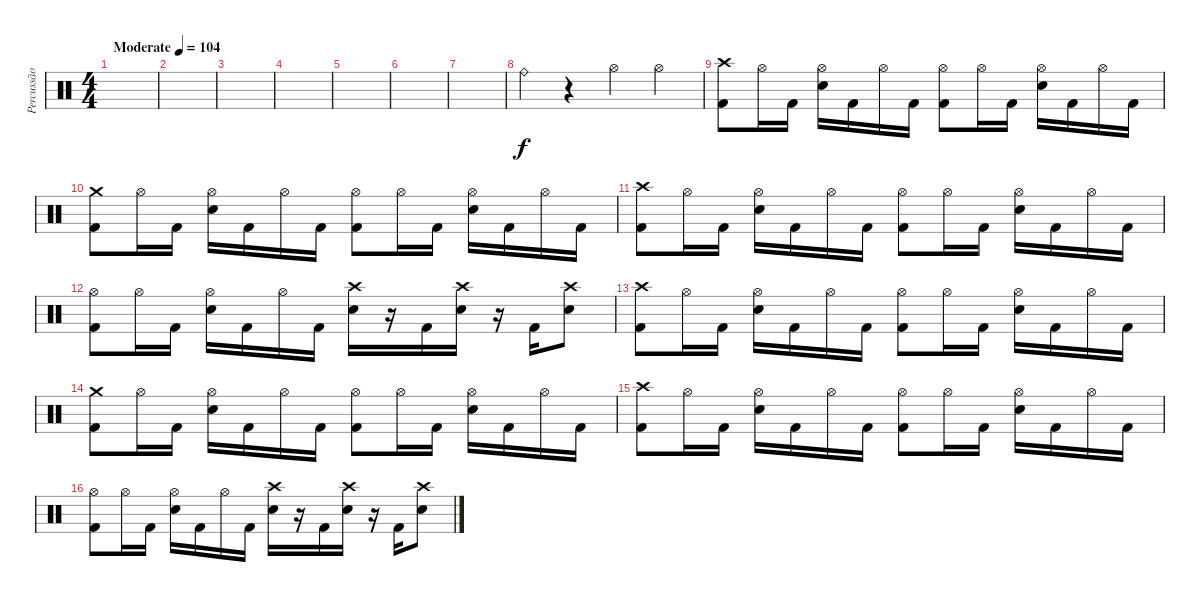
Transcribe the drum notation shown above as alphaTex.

\track ("Percussão" "Percussão") {instrument percussion}
\staff {score}
\articulation defaults
\ts (4 4)
\tempo (104 "Moderate")
\clef neutral
\ks c
|
|
|
|
|
|
|
"Ride (bell)".4 r.4 "Hi-Hat (open)".4 "Hi-Hat (open)".4 |
("Crash high (hit)" "Kick (hit) 2").8 "Hi-Hat (open)".16 "Kick (hit) 2".16 ("Hi-Hat (open)" "Electric Snare (hit)").16 "Kick (hit) 2".16 "Hi-Hat (open)".16 "Kick (hit) 2".16 ("Hi-Hat (open)" "Kick (hit) 2").8 "Hi-Hat (open)".16 "Kick (hit) 2".16 ("Hi-Hat (open)" "Electric Snare (hit)").16 "Kick (hit) 2".16 "Hi-Hat (open)".16 "Kick (hit) 2".16 |
("Crash medium (hit)" "Kick (hit) 2").8 "Hi-Hat (open)".16 "Kick (hit) 2".16 ("Hi-Hat (open)" "Electric Snare (hit)").16 "Kick (hit) 2".16 "Hi-Hat (open)".16 "Kick (hit) 2".16 ("Hi-Hat (open)" "Kick (hit) 2").8 "Hi-Hat (open)".16 "Kick (hit) 2".16 ("Hi-Hat (open)" "Electric Snare (hit)").16 "Kick (hit) 2".16 "Hi-Hat (open)".16 "Kick (hit) 2".16 |
("Crash high (hit)" "Kick (hit) 2").8 "Hi-Hat (open)".16 "Kick (hit) 2".16 ("Hi-Hat (open)" "Electric Snare (hit)").16 "Kick (hit) 2".16 "Hi-Hat (open)".16 "Kick (hit) 2".16 ("Hi-Hat (open)" "Kick (hit) 2").8 "Hi-Hat (open)".16 "Kick (hit) 2".16 ("Hi-Hat (open)" "Electric Snare (hit)").16 "Kick (hit) 2".16 "Hi-Hat (open)".16 "Kick (hit) 2".16 |
("Hi-Hat (open)" "Kick (hit) 2").8 "Hi-Hat (open)".16 "Kick (hit) 2".16 ("Hi-Hat (open)" "Electric Snare (hit)").16 "Kick (hit) 2".16 "Hi-Hat (open)".16 "Kick (hit) 2".16 ("Crash high (hit)" "Electric Snare (hit)").16 r.16 "Kick (hit) 2".16 ("Crash high (hit)" "Electric Snare (hit)").16 r.16 "Kick (hit) 2".16 ("Crash high (hit)" "Electric Snare (hit)").8 |
("Crash high (hit)" "Kick (hit) 2").8 "Hi-Hat (open)".16 "Kick (hit) 2".16 ("Hi-Hat (open)" "Electric Snare (hit)").16 "Kick (hit) 2".16 "Hi-Hat (open)".16 "Kick (hit) 2".16 ("Hi-Hat (open)" "Kick (hit) 2").8 "Hi-Hat (open)".16 "Kick (hit) 2".16 ("Hi-Hat (open)" "Electric Snare (hit)").16 "Kick (hit) 2".16 "Hi-Hat (open)".16 "Kick (hit) 2".16 |
("Crash medium (hit)" "Kick (hit) 2").8 "Hi-Hat (open)".16 "Kick (hit) 2".16 ("Hi-Hat (open)" "Electric Snare (hit)").16 "Kick (hit) 2".16 "Hi-Hat (open)".16 "Kick (hit) 2".16 ("Hi-Hat (open)" "Kick (hit) 2").8 "Hi-Hat (open)".16 "Kick (hit) 2".16 ("Hi-Hat (open)" "Electric Snare (hit)").16 "Kick (hit) 2".16 "Hi-Hat (open)".16 "Kick (hit) 2".16 |
("Crash high (hit)" "Kick (hit) 2").8 "Hi-Hat (open)".16 "Kick (hit) 2".16 ("Hi-Hat (open)" "Electric Snare (hit)").16 "Kick (hit) 2".16 "Hi-Hat (open)".16 "Kick (hit) 2".16 ("Hi-Hat (open)" "Kick (hit) 2").8 "Hi-Hat (open)".16 "Kick (hit) 2".16 ("Hi-Hat (open)" "Electric Snare (hit)").16 "Kick (hit) 2".16 "Hi-Hat (open)".16 "Kick (hit) 2".16 |
("Hi-Hat (open)" "Kick (hit) 2").8 "Hi-Hat (open)".16 "Kick (hit) 2".16 ("Hi-Hat (open)" "Electric Snare (hit)").16 "Kick (hit) 2".16 "Hi-Hat (open)".16 "Kick (hit) 2".16 ("Crash high (hit)" "Electric Snare (hit)").16 r.16 "Kick (hit) 2".16 ("Crash high (hit)" "Electric Snare (hit)").16 r.16 "Kick (hit) 2".16 ("Crash high (hit)" "Electric Snare (hit)").8
